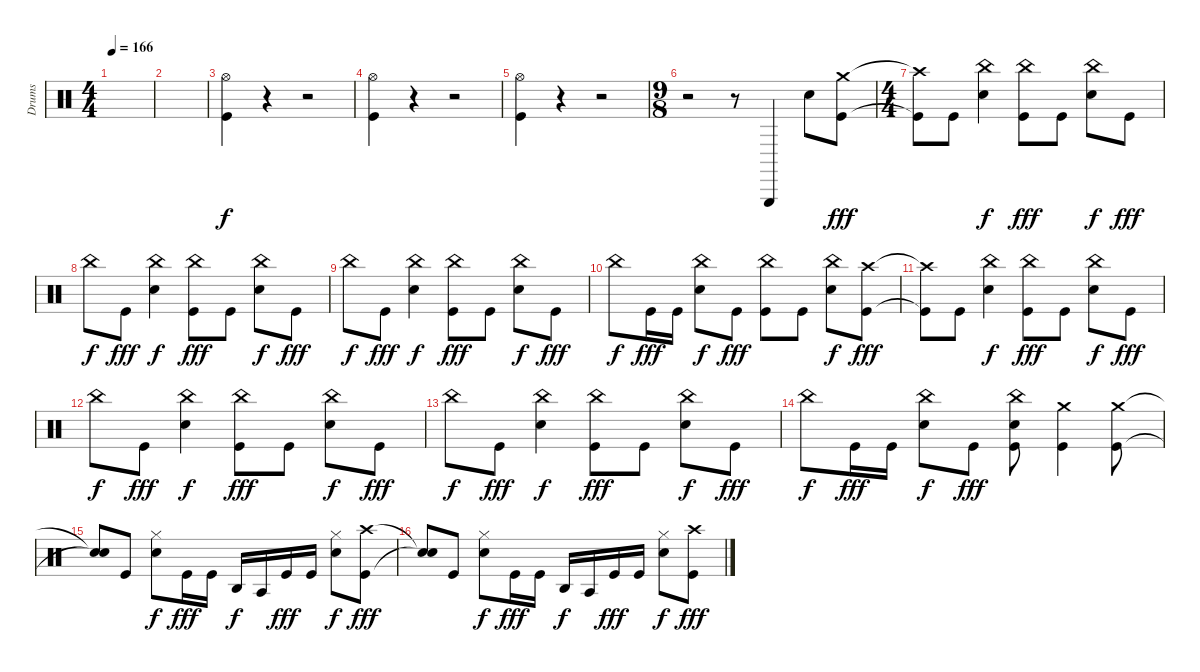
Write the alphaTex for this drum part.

\track ("Drums" "Drums") {instrument percussion}
\staff {score}
\articulation defaults
\ts (4 4)
\tempo 166
\clef neutral
\ks c
|
|
("Hi-Hat (open)" "Kick (hit)").4 r.4{volume 0} r.2 |
("Hi-Hat (open)" "Kick (hit)").4{volume 15} r.4{volume 0} r.2 |
("Hi-Hat (open)" "Kick (hit)").4{volume 15} r.4{volume 0} r.2 |
\ts (9 8)
r.2 r.8 "Triangle (hit)".4{dy f volume 15} "Electric Snare (hit)".8 ("Crash medium (hit)" "Kick (hit)").8{dy fff} |
\ts (4 4)
("Crash high (hit)"{t} "Kick (hit)"{t}).8 "Kick (hit)".8 ("China (hit)" "Electric Snare (hit)").4{dy f} ("China (hit)" "Kick (hit)").8{dy fff} "Kick (hit)".8 ("China (hit)" "Electric Snare (hit)").8{dy f} "Kick (hit)".8{dy fff} |
"China (hit)".8{dy f} "Kick (hit)".8{dy fff} ("China (hit)" "Electric Snare (hit)").4{dy f} ("China (hit)" "Kick (hit)").8{dy fff} "Kick (hit)".8 ("China (hit)" "Electric Snare (hit)").8{dy f} "Kick (hit)".8{dy fff} |
"China (hit)".8{dy f} "Kick (hit)".8{dy fff} ("China (hit)" "Electric Snare (hit)").4{dy f} ("China (hit)" "Kick (hit)").8{dy fff} "Kick (hit)".8 ("China (hit)" "Electric Snare (hit)").8{dy f} "Kick (hit)".8{dy fff} |
"China (hit)".8{dy f} "Kick (hit)".16{dy fff} "Kick (hit)".16 ("China (hit)" "Electric Snare (hit)").8{dy f} "Kick (hit)".8{dy fff} ("China (hit)" "Kick (hit)").8 "Kick (hit)".8 ("China (hit)" "Electric Snare (hit)").8{dy f} ("Crash high (hit)" "Kick (hit)").8{dy fff} |
("Crash high (hit)"{t} "Kick (hit)"{t}).8 "Kick (hit)".8 ("China (hit)" "Electric Snare (hit)").4{dy f} ("China (hit)" "Kick (hit)").8{dy fff} "Kick (hit)".8 ("China (hit)" "Electric Snare (hit)").8{dy f} "Kick (hit)".8{dy fff} |
"China (hit)".8{dy f} "Kick (hit)".8{dy fff} ("China (hit)" "Electric Snare (hit)").4{dy f} ("China (hit)" "Kick (hit)").8{dy fff} "Kick (hit)".8 ("China (hit)" "Electric Snare (hit)").8{dy f} "Kick (hit)".8{dy fff} |
"China (hit)".8{dy f} "Kick (hit)".8{dy fff} ("China (hit)" "Electric Snare (hit)").4{dy f} ("China (hit)" "Kick (hit)").8{dy fff} "Kick (hit)".8 ("China (hit)" "Electric Snare (hit)").8{dy f} "Kick (hit)".8{dy fff} |
"China (hit)".8{dy f} "Kick (hit)".16{dy fff} "Kick (hit)".16 ("China (hit)" "Electric Snare (hit)").8{dy f} "Kick (hit)".8{dy fff} ("China (hit)" "Electric Snare (hit)" "Kick (hit)").8 ("Crash medium (hit)" "Kick (hit)").4 ("Crash medium (hit)" "Kick (hit)").8 |
("Snare (hit)"{t} "Snare (hit)"{t}).8 "Kick (hit)".8 ("Hi-Hat (closed)" "Electric Snare (hit)").8{dy f} "Kick (hit)".16{dy fff} "Kick (hit)".16 "Agogo high (hit)".16{dy f} "Agogo tow (hit)".16 "Kick (hit)".16{dy fff} "Kick (hit)".16 ("Hi-Hat (closed)" "Electric Snare (hit)").8{dy f} ("Crash high (hit)" "Kick (hit)").8{dy fff} |
("Snare (hit)"{t} "Snare (hit)"{t}).8 "Kick (hit)".8 ("Hi-Hat (closed)" "Electric Snare (hit)").8{dy f} "Kick (hit)".16{dy fff} "Kick (hit)".16 "Agogo high (hit)".16{dy f} "Agogo tow (hit)".16 "Kick (hit)".16{dy fff} "Kick (hit)".16 ("Hi-Hat (closed)" "Electric Snare (hit)").8{dy f} ("Crash high (hit)" "Kick (hit)").8{dy fff}
